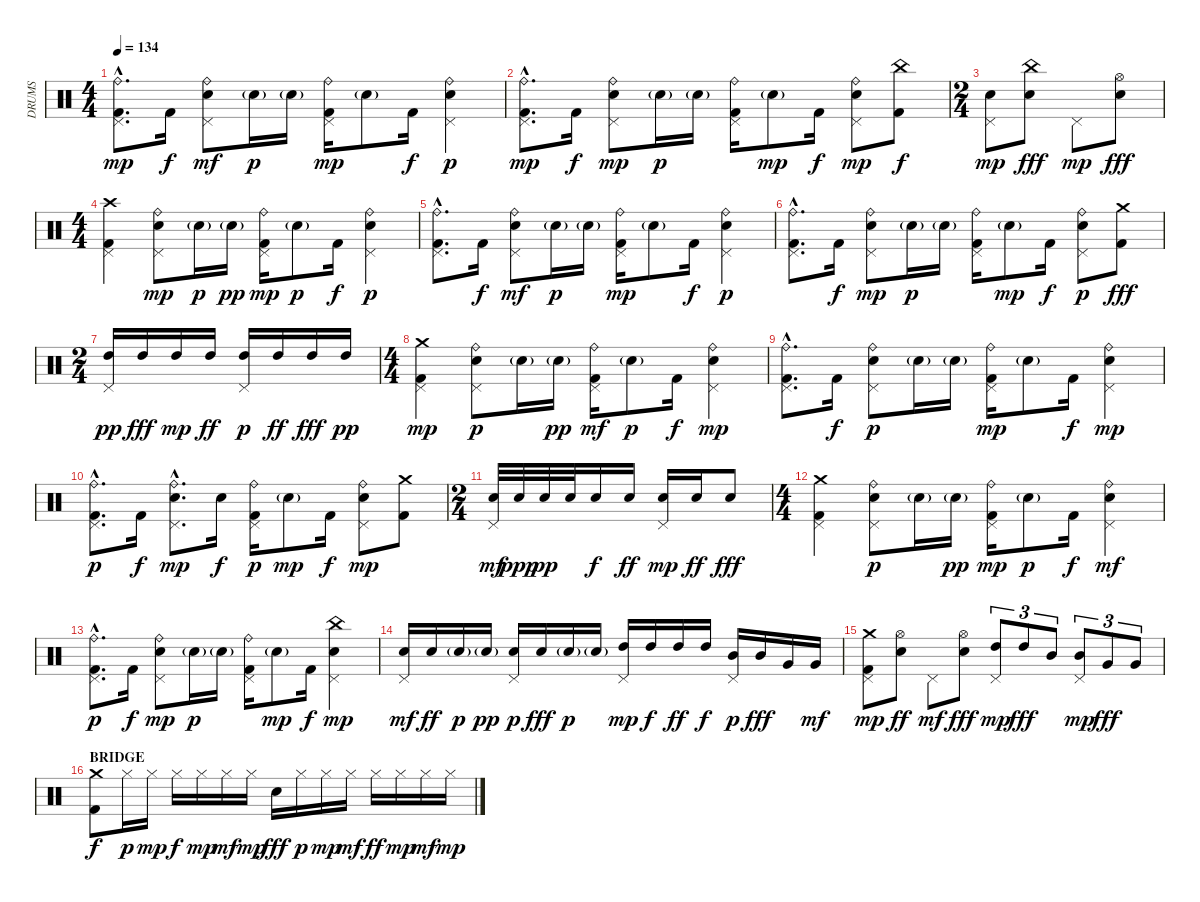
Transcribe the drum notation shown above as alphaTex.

\track ("DRUMS" "DRUMS") {instrument percussion}
\staff {score}
\articulation defaults
\ts (4 4)
\tempo 134
\clef neutral
\ks c
("Ride (bell)"{hac} "Pedal Hi-Hat (hit)"{hac} "Kick (hit) 2"{hac}).8{d dy mp} "Kick (hit) 2".16{dy f} ("Ride (bell)" "Electric Snare (hit)" "Pedal Hi-Hat (hit)").8{dy mf} "Electric Snare (hit)"{g}.16{dy p} "Electric Snare (hit)"{g}.16 ("Ride (bell)" "Pedal Hi-Hat (hit)" "Kick (hit) 2").16{dy mp} "Electric Snare (hit)"{g}.8 "Kick (hit) 2".16{dy f} ("Ride (bell)" "Electric Snare (hit)" "Pedal Hi-Hat (hit)").4{dy p} |
("Ride (bell)"{hac} "Pedal Hi-Hat (hit)"{hac} "Kick (hit) 2"{hac}).8{d dy mp} "Kick (hit) 2".16{dy f} ("Ride (bell)" "Electric Snare (hit)" "Pedal Hi-Hat (hit)").8{dy mp} "Electric Snare (hit)"{g}.16{dy p} "Electric Snare (hit)"{g}.16 ("Ride (bell)" "Pedal Hi-Hat (hit)" "Kick (hit) 2").16 "Electric Snare (hit)"{g}.8{dy mp} "Kick (hit) 2".16{dy f} ("Ride (bell)" "Electric Snare (hit)" "Pedal Hi-Hat (hit)").8{dy mp} ("China (hit)" "Kick (hit) 2").8{dy f} |
\ts (2 4)
("Electric Snare (hit)" "Pedal Hi-Hat (hit)").8{dy mp} ("China (hit)" "Electric Snare (hit)").8{dy fff} "Pedal Hi-Hat (hit)".8{dy mp} ("Hi-Hat (open)" "Electric Snare (hit)").8{dy fff} |
\ts (4 4)
("Crash high (hit)" "Pedal Hi-Hat (hit)" "Kick (hit) 2").4 ("Ride (bell)" "Electric Snare (hit)" "Pedal Hi-Hat (hit)").8{dy mp} "Electric Snare (hit)"{g}.16{dy p} "Electric Snare (hit)"{g}.16{dy pp} ("Ride (bell)" "Pedal Hi-Hat (hit)" "Kick (hit) 2").16{dy mp} "Electric Snare (hit)"{g}.8{dy p} "Kick (hit) 2".16{dy f} ("Ride (bell)" "Electric Snare (hit)" "Pedal Hi-Hat (hit)").4{dy p} |
("Ride (bell)"{hac} "Pedal Hi-Hat (hit)"{hac} "Kick (hit) 2"{hac}).8{d} "Kick (hit) 2".16{dy f} ("Ride (bell)" "Electric Snare (hit)" "Pedal Hi-Hat (hit)").8{dy mf} "Electric Snare (hit)"{g}.16{dy p} "Electric Snare (hit)"{g}.16 ("Ride (bell)" "Pedal Hi-Hat (hit)" "Kick (hit) 2").16{dy mp} "Electric Snare (hit)"{g}.8 "Kick (hit) 2".16{dy f} ("Ride (bell)" "Electric Snare (hit)" "Pedal Hi-Hat (hit)").4{dy p} |
("Ride (bell)"{hac} "Pedal Hi-Hat (hit)"{hac} "Kick (hit) 2"{hac}).8{d} "Kick (hit) 2".16{dy f} ("Ride (bell)" "Electric Snare (hit)" "Pedal Hi-Hat (hit)").8{dy mp} "Electric Snare (hit)"{g}.16{dy p} "Electric Snare (hit)"{g}.16 ("Ride (bell)" "Pedal Hi-Hat (hit)" "Kick (hit) 2").16 "Electric Snare (hit)"{g}.8{dy mp} "Kick (hit) 2".16{dy f} ("Ride (bell)" "Electric Snare (hit)" "Pedal Hi-Hat (hit)").8{dy p} ("Crash medium (hit)" "Kick (hit) 2").8{dy fff} |
\ts (2 4)
("High Tom (hit)" "Pedal Hi-Hat (hit)").16{dy pp} "High Tom (hit)".16{dy fff} "High Tom (hit)".16{dy mp} "High Tom (hit)".16{dy ff} ("High Tom (hit)" "Pedal Hi-Hat (hit)").16{dy p} "High Tom (hit)".16{dy ff} "High Tom (hit)".16{dy fff} "High Tom (hit)".16{dy pp} |
\ts (4 4)
("Crash medium (hit)" "Pedal Hi-Hat (hit)" "Kick (hit) 2").4{dy mp} ("Ride (bell)" "Electric Snare (hit)" "Pedal Hi-Hat (hit)").8{dy p} "Electric Snare (hit)"{g}.16 "Electric Snare (hit)"{g}.16{dy pp} ("Ride (bell)" "Pedal Hi-Hat (hit)" "Kick (hit) 2").16{dy mf} "Electric Snare (hit)"{g}.8{dy p} "Kick (hit) 2".16{dy f} ("Ride (bell)" "Electric Snare (hit)" "Pedal Hi-Hat (hit)").4{dy mp} |
("Ride (bell)"{hac} "Pedal Hi-Hat (hit)"{hac} "Kick (hit) 2"{hac}).8{d} "Kick (hit) 2".16{dy f} ("Ride (bell)" "Electric Snare (hit)" "Pedal Hi-Hat (hit)").8{dy p} "Electric Snare (hit)"{g}.16 "Electric Snare (hit)"{g}.16 ("Ride (bell)" "Pedal Hi-Hat (hit)" "Kick (hit) 2").16{dy mp} "Electric Snare (hit)"{g}.8 "Kick (hit) 2".16{dy f} ("Ride (bell)" "Electric Snare (hit)" "Pedal Hi-Hat (hit)").4{dy mp} |
("Ride (bell)"{hac} "Pedal Hi-Hat (hit)"{hac} "Kick (hit) 2"{hac}).8{d dy p} "Kick (hit) 2".16{dy f} ("Ride (bell)"{hac} "Electric Snare (hit)"{hac} "Pedal Hi-Hat (hit)"{hac}).8{d dy mp} "Electric Snare (hit)".16{dy f} ("Ride (bell)" "Pedal Hi-Hat (hit)" "Kick (hit) 2").16{dy p} "Electric Snare (hit)"{g}.8{dy mp} "Kick (hit) 2".16{dy f} ("Ride (bell)" "Electric Snare (hit)" "Pedal Hi-Hat (hit)").8{dy mp} ("Crash medium (hit)" "Kick (hit) 2").8 |
\ts (2 4)
("Electric Snare (hit)" "Pedal Hi-Hat (hit)").32{dy mf} "Electric Snare (hit)".32{dy ppp} "Electric Snare (hit)".32{dy pp} "Electric Snare (hit)".32 "Electric Snare (hit)".16{dy f} "Electric Snare (hit)".16{dy ff} ("Electric Snare (hit)" "Pedal Hi-Hat (hit)").16{dy mp} "Electric Snare (hit)".16{dy ff} "Electric Snare (hit)".8{dy fff} |
\ts (4 4)
("Crash medium (hit)" "Pedal Hi-Hat (hit)" "Kick (hit) 2").4 ("Ride (bell)" "Electric Snare (hit)" "Pedal Hi-Hat (hit)").8{dy p} "Electric Snare (hit)"{g}.16 "Electric Snare (hit)"{g}.16{dy pp} ("Ride (bell)" "Pedal Hi-Hat (hit)" "Kick (hit) 2").16{dy mp} "Electric Snare (hit)"{g}.8{dy p} "Kick (hit) 2".16{dy f} ("Ride (bell)" "Electric Snare (hit)" "Pedal Hi-Hat (hit)").4{dy mf} |
("Ride (bell)"{hac} "Pedal Hi-Hat (hit)"{hac} "Kick (hit) 2"{hac}).8{d dy p} "Kick (hit) 2".16{dy f} ("Ride (bell)" "Electric Snare (hit)" "Pedal Hi-Hat (hit)").8{dy mp} "Electric Snare (hit)"{g}.16{dy p} "Electric Snare (hit)"{g}.16 ("Ride (bell)" "Pedal Hi-Hat (hit)" "Kick (hit) 2").16 "Electric Snare (hit)"{g}.8{dy mp} "Kick (hit) 2".16{dy f} ("China (hit)" "Electric Snare (hit)" "Pedal Hi-Hat (hit)").4{dy mp} |
("Electric Snare (hit)" "Pedal Hi-Hat (hit)").16{dy mf} "Electric Snare (hit)".16{dy ff} "Electric Snare (hit)"{g}.16{dy p} "Electric Snare (hit)"{g}.16{dy pp} ("Electric Snare (hit)" "Pedal Hi-Hat (hit)").16{dy p} "Electric Snare (hit)".16{dy fff} "Electric Snare (hit)"{g}.16{dy p} "Electric Snare (hit)"{g}.16 ("High Tom (hit)" "Pedal Hi-Hat (hit)").16{dy mp} "High Tom (hit)".16{dy f} "High Tom (hit)".16{dy ff} "High Tom (hit)".16{dy f} ("Mid Tom (hit)" "Pedal Hi-Hat (hit)").16{dy p} "Mid Tom (hit)".16{dy fff} "Very Low Tom (hit)".16 "Very Low Tom (hit)".16{dy mf} |
("Crash medium (hit)" "Pedal Hi-Hat (hit)" "Kick (hit) 2").8{dy mp} ("Hi-Hat (open)" "Electric Snare (hit)").8{dy ff} "Pedal Hi-Hat (hit)".8{dy mf} ("Hi-Hat (open)" "Electric Snare (hit)").8{dy fff} ("High Tom (hit)" "Pedal Hi-Hat (hit)").8{tu (3 2) dy mp} "High Tom (hit)".8{tu (3 2) dy fff} "Mid Tom (hit)".8{tu (3 2)} ("Mid Tom (hit)" "Pedal Hi-Hat (hit)").8{tu (3 2) dy mp} "Very Low Tom (hit)".8{tu (3 2) dy fff} "Very Low Tom (hit)".8{tu (3 2)} |
\section ("" "BRIDGE")
("Crash medium (hit)" "Kick (hit) 2").8{dy f} "Hi-Hat (closed)".16{dy p} "Hi-Hat (closed)".16{dy mp} "Hi-Hat (closed)".16{dy f} "Hi-Hat (closed)".16{dy mp} "Hi-Hat (closed)".16{dy mf} "Hi-Hat (closed)".16{dy mp} "Electric Snare (hit)".16{dy fff} "Hi-Hat (closed)".16{dy p} "Hi-Hat (closed)".16{dy mp} "Hi-Hat (closed)".16{dy mf} "Hi-Hat (closed)".16{dy ff} "Hi-Hat (closed)".16{dy mp} "Hi-Hat (closed)".16{dy mf} "Hi-Hat (closed)".16{dy mp}
